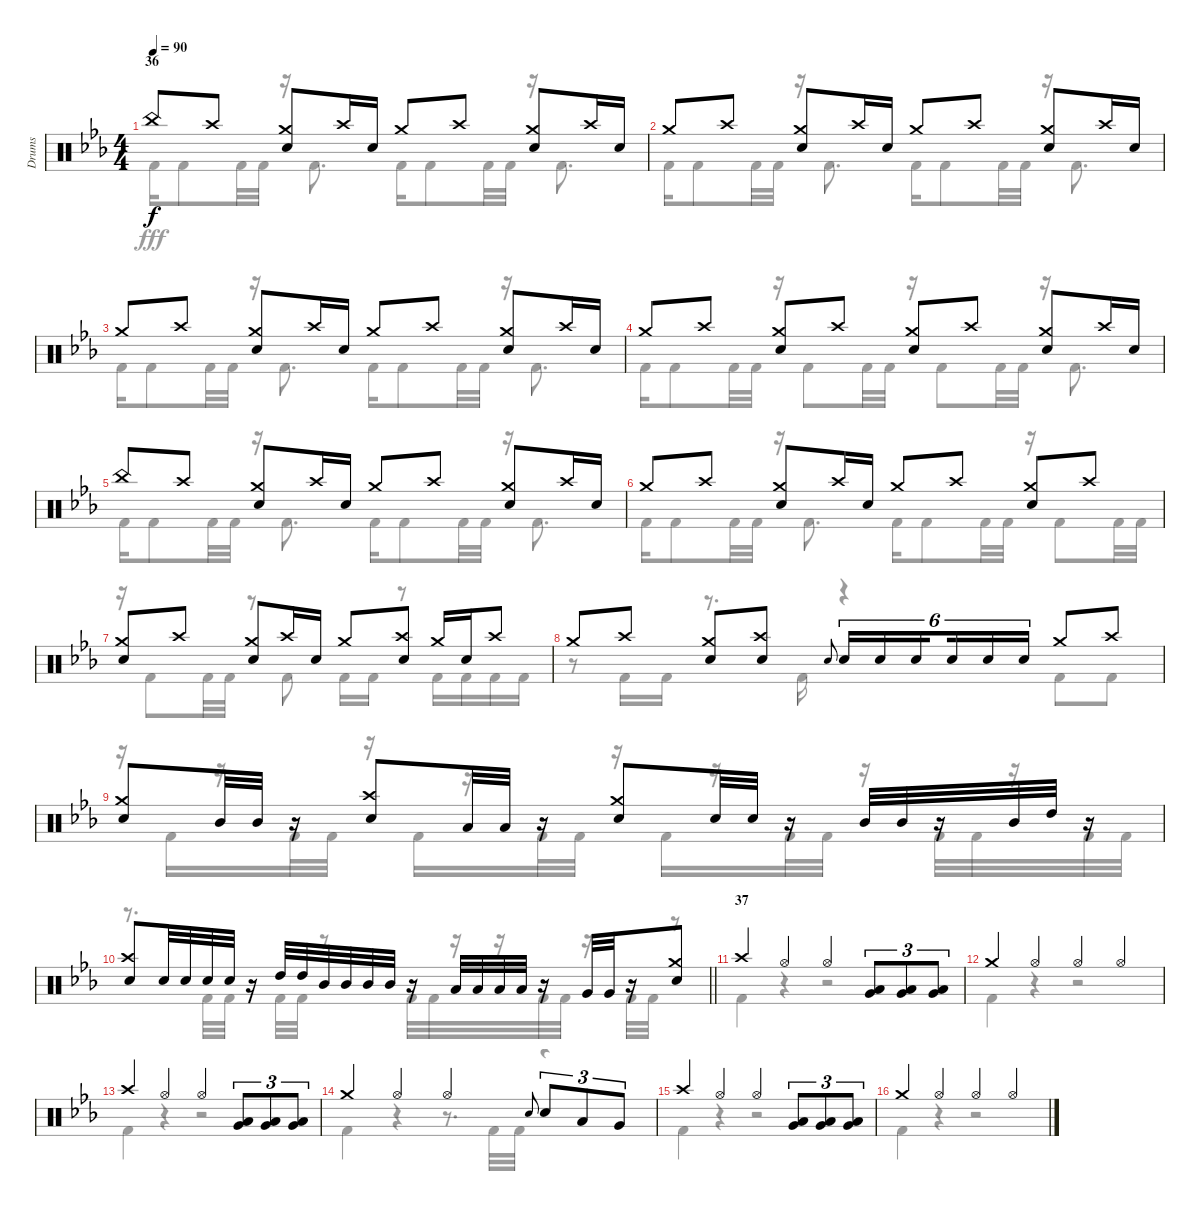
\track ("Drums" "Drums") {instrument percussion}
\staff {score}
\articulation defaults
\voice
\ts (4 4)
\section ("" "36")
\tempo 90
\clef neutral
\ks eb "China (hit)".8{dy f} "Crash high (hit)".8
("Crash medium (hit)" "Snare (hit) 2").8 "Crash high (hit)".16 "Snare (hit) 2".16 "Crash medium (hit)".8 "Crash high (hit)".8 ("Crash medium (hit)" "Snare (hit) 2").8 "Crash high (hit)".16 "Snare (hit) 2".16 |
"Crash medium (hit)".8 "Crash high (hit)".8 ("Crash medium (hit)" "Snare (hit) 2").8 "Crash high (hit)".16 "Snare (hit) 2".16 "Crash medium (hit)".8 "Crash high (hit)".8 ("Crash medium (hit)" "Snare (hit) 2").8 "Crash high (hit)".16 "Snare (hit) 2".16 |
"Crash medium (hit)".8 "Crash high (hit)".8 ("Crash medium (hit)" "Snare (hit) 2").8 "Crash high (hit)".16 "Snare (hit) 2".16 "Crash medium (hit)".8 "Crash high (hit)".8 ("Crash medium (hit)" "Snare (hit) 2").8 "Crash high (hit)".16 "Snare (hit) 2".16 |
"Crash medium (hit)".8 "Crash high (hit)".8 ("Crash medium (hit)" "Snare (hit) 2").8 "Crash high (hit)".8 ("Crash medium (hit)" "Snare (hit) 2").8 "Crash high (hit)".8 ("Crash medium (hit)" "Snare (hit) 2").8 "Crash high (hit)".16 "Snare (hit) 2".16 |
"China (hit)".8 "Crash high (hit)".8 ("Crash medium (hit)" "Snare (hit) 2").8 "Crash high (hit)".16 "Snare (hit) 2".16 "Crash medium (hit)".8 "Crash high (hit)".8 ("Crash medium (hit)" "Snare (hit) 2").8 "Crash high (hit)".16 "Snare (hit) 2".16 |
"Crash medium (hit)".8 "Crash high (hit)".8 ("Crash medium (hit)" "Snare (hit) 2").8 "Crash high (hit)".16 "Snare (hit) 2".16 "Crash medium (hit)".8 "Crash high (hit)".8 ("Crash medium (hit)" "Snare (hit) 2").8 "Crash high (hit)".8 |
("Crash medium (hit)" "Snare (hit) 2").8 "Crash high (hit)".8 ("Crash medium (hit)" "Snare (hit) 2").8 "Crash high (hit)".16 "Snare (hit) 2".16 "Crash medium (hit)".8 ("Crash high (hit)" "Snare (hit) 2").8 "Crash medium (hit)".16 "Snare (hit) 2".16 "Crash high (hit)".8 |
"Crash medium (hit)".8 "Crash high (hit)".8 ("Crash medium (hit)" "Snare (hit) 2").8 ("Crash high (hit)" "Snare (hit) 2").8 "Snare (hit) 2".8{gr onbeat} "Snare (hit) 2".16{tu (6 4)} "Snare (hit) 2".16{tu (6 4)} "Snare (hit) 2".16{tu (6 4) beam splitsecondary} "Snare (hit) 2".16{tu (6 4)} "Snare (hit) 2".16{tu (6 4)} "Snare (hit) 2".16{tu (6 4)} "Crash medium (hit)".8 "Crash high (hit)".8 |
("Crash medium (hit)" "Snare (hit) 2").8 "Mid Tom (hit)".32 "Mid Tom (hit)".32 r.16 ("Crash high (hit)" "Snare (hit) 2").8 "Low Tom (hit)".32 "Low Tom (hit)".32 r.16 ("Crash medium (hit)" "Snare (hit) 2").8 "Snare (hit) 2".32 "Snare (hit) 2".32 r.16 "Mid Tom (hit)".32 "Mid Tom (hit)".32 r.16 "Mid Tom (hit)".32 "High Tom (hit)".32 r.16 |
\barLineRight lightlight
("Crash high (hit)" "Snare (hit) 2").8 "Snare (hit) 2".32 "Snare (hit) 2".32 "Snare (hit) 2".32 "Snare (hit) 2".32 r.16 "High Tom (hit)".32 "High Tom (hit)".32 "Mid Tom (hit)".32 "Mid Tom (hit)".32 "Mid Tom (hit)".32 "Mid Tom (hit)".32 r.16 "Low Tom (hit)".32 "Low Tom (hit)".32 "Low Tom (hit)".32 "Low Tom (hit)".32 r.16 "Very Low Tom (hit)".32 "Very Low Tom (hit)".32 r.16 ("Crash medium (hit)" "Snare (hit) 2").8 |
\section ("" "37")
"Crash high (hit)".4 "Hi-Hat (open)".4 "Hi-Hat (open)".4 ("Low Tom (hit)" "Very Low Tom (hit)").8{tu (3 2)} ("Low Tom (hit)" "Very Low Tom (hit)").8{tu (3 2)} ("Low Tom (hit)" "Very Low Tom (hit)").8{tu (3 2)} |
"Crash medium (hit)".4 "Hi-Hat (open)".4 "Hi-Hat (open)".4 "Hi-Hat (open)".4 |
"Crash high (hit)".4 "Hi-Hat (open)".4 "Hi-Hat (open)".4 ("Low Tom (hit)" "Very Low Tom (hit)").8{tu (3 2)} ("Low Tom (hit)" "Very Low Tom (hit)").8{tu (3 2)} ("Low Tom (hit)" "Very Low Tom (hit)").8{tu (3 2)} |
"Crash medium (hit)".4 "Hi-Hat (open)".4 "Hi-Hat (open)".4 "Snare (hit) 2".8{gr onbeat} "Snare (hit) 2".8{tu (3 2)} "Low Tom (hit)".8{tu (3 2)} "Very Low Tom (hit)".8{tu (3 2)} |
"Crash high (hit)".4 "Hi-Hat (open)".4 "Hi-Hat (open)".4 ("Low Tom (hit)" "Very Low Tom (hit)").8{tu (3 2)} ("Low Tom (hit)" "Very Low Tom (hit)").8{tu (3 2)} ("Low Tom (hit)" "Very Low Tom (hit)").8{tu (3 2)} |
"Crash medium (hit)".4 "Hi-Hat (open)".4 "Hi-Hat (open)".4 "Hi-Hat (open)".4
\voice
\clef neutral
\ottava regular
\simile none
\ks eb "Kick (hit) 2".16{dy fff} "Kick (hit) 2".8 "Kick (hit) 2".32 "Kick (hit) 2".32
r.16 "Kick (hit) 2".8{d} "Kick (hit) 2".16 "Kick (hit) 2".8 "Kick (hit) 2".32 "Kick (hit) 2".32 r.16 "Kick (hit) 2".8{d} |
"Kick (hit) 2".16 "Kick (hit) 2".8 "Kick (hit) 2".32 "Kick (hit) 2".32 r.16 "Kick (hit) 2".8{d} "Kick (hit) 2".16 "Kick (hit) 2".8 "Kick (hit) 2".32 "Kick (hit) 2".32 r.16 "Kick (hit) 2".8{d} |
"Kick (hit) 2".16 "Kick (hit) 2".8 "Kick (hit) 2".32 "Kick (hit) 2".32 r.16 "Kick (hit) 2".8{d} "Kick (hit) 2".16 "Kick (hit) 2".8 "Kick (hit) 2".32 "Kick (hit) 2".32 r.16 "Kick (hit) 2".8{d} |
"Kick (hit) 2".16 "Kick (hit) 2".8 "Kick (hit) 2".32 "Kick (hit) 2".32 r.16 "Kick (hit) 2".8 "Kick (hit) 2".32 "Kick (hit) 2".32 r.16 "Kick (hit) 2".8 "Kick (hit) 2".32 "Kick (hit) 2".32 r.16 "Kick (hit) 2".8{d} |
"Kick (hit) 2".16 "Kick (hit) 2".8 "Kick (hit) 2".32 "Kick (hit) 2".32 r.16 "Kick (hit) 2".8{d} "Kick (hit) 2".16 "Kick (hit) 2".8 "Kick (hit) 2".32 "Kick (hit) 2".32 r.16 "Kick (hit) 2".8{d} |
"Kick (hit) 2".16 "Kick (hit) 2".8 "Kick (hit) 2".32 "Kick (hit) 2".32 r.16 "Kick (hit) 2".8{d} "Kick (hit) 2".16 "Kick (hit) 2".8 "Kick (hit) 2".32 "Kick (hit) 2".32 r.16 "Kick (hit) 2".8 "Kick (hit) 2".32 "Kick (hit) 2".32 |
r.16 "Kick (hit) 2".8 "Kick (hit) 2".32 "Kick (hit) 2".32 r.8 "Kick (hit) 2".8 "Kick (hit) 2".16 "Kick (hit) 2".16 r.8 "Kick (hit) 2".16 "Kick (hit) 2".16 "Kick (hit) 2".16 "Kick (hit) 2".16 |
r.8 "Kick (hit) 2".16 "Kick (hit) 2".16 r.8{d} "Kick (hit) 2".16 r.4 "Kick (hit) 2".8 "Kick (hit) 2".8 |
r.16 "Kick (hit) 2".16 r.16 "Kick (hit) 2".32 "Kick (hit) 2".32 r.16 "Kick (hit) 2".16 r.16 "Kick (hit) 2".32 "Kick (hit) 2".32 r.16 "Kick (hit) 2".16 r.16 "Kick (hit) 2".32 "Kick (hit) 2".32 r.16 "Kick (hit) 2".32 "Kick (hit) 2".32 r.16 "Kick (hit) 2".32 "Kick (hit) 2".32 |
\barLineRight lightlight
r.8{d} "Kick (hit) 2".32 "Kick (hit) 2".32 r.16 "Kick (hit) 2".32 "Kick (hit) 2".32 r.8 "Kick (hit) 2".32 "Kick (hit) 2".32 r.16 r.16 "Kick (hit) 2".32 "Kick (hit) 2".32 r.16 "Kick (hit) 2".32 "Kick (hit) 2".32 r.8 |
"Kick (hit) 2".4 r.4 r.2 |
"Kick (hit) 2".4 r.4 r.2 |
"Kick (hit) 2".4 r.4 r.2 |
"Kick (hit) 2".4 r.4 r.8{d} "Kick (hit) 2".32 "Kick (hit) 2".32 r.4 |
"Kick (hit) 2".4 r.4 r.2 |
"Kick (hit) 2".4 r.4 r.2
